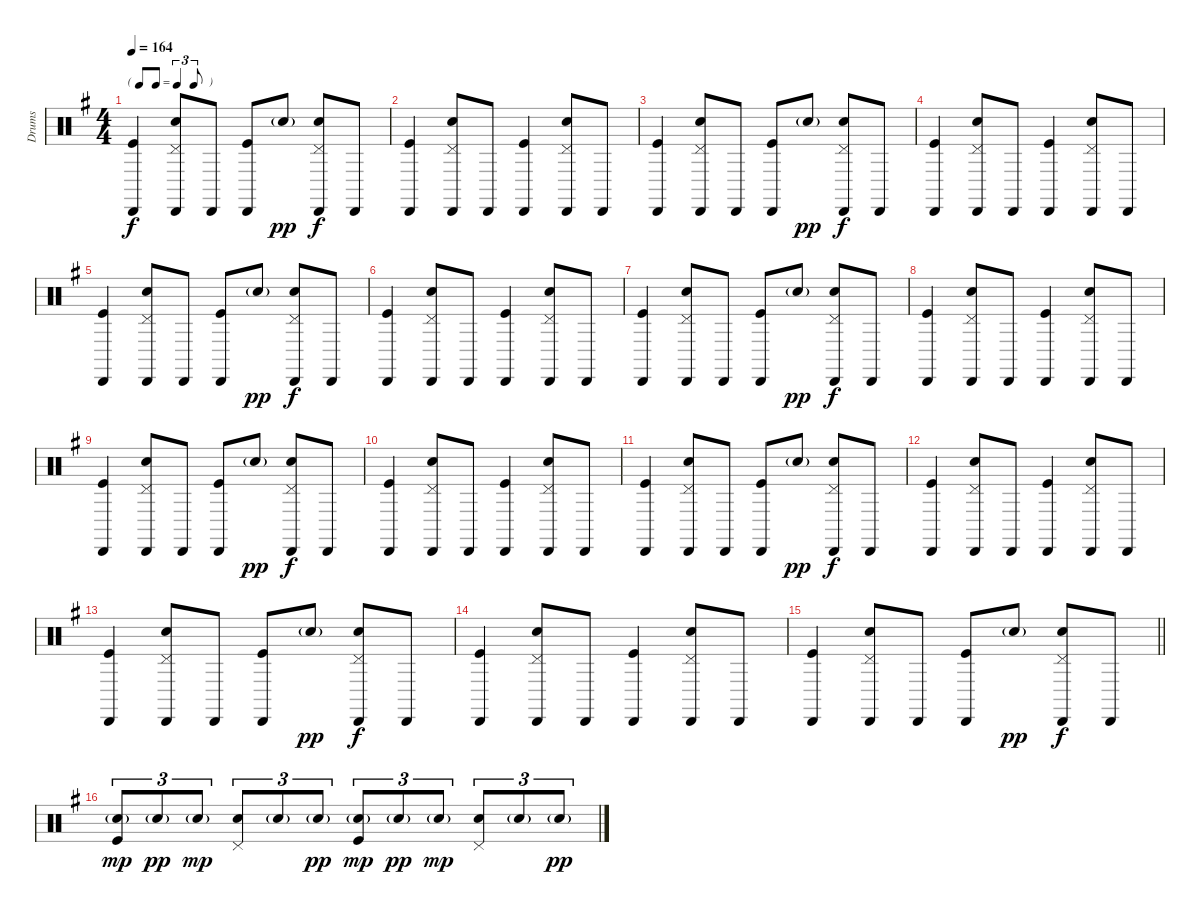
\track ("Drums" "Drums") {instrument percussion}
\staff {score}
\articulation defaults
\ts (4 4)
\tf triplet8th
\tempo 164
\clef neutral
\ks g
("Cabasa (hit)" "Kick (hit)").4{dy f} ("Pedal Hi-Hat (hit)" "Cabasa (hit)" "Snare (hit) 2").8 "Cabasa (hit)".8 ("Cabasa (hit)" "Kick (hit)").8 "Snare (hit) 2"{g}.8{dy pp} ("Pedal Hi-Hat (hit)" "Cabasa (hit)" "Snare (hit) 2").8{dy f} "Cabasa (hit)".8 |
("Cabasa (hit)" "Kick (hit)").4 ("Pedal Hi-Hat (hit)" "Cabasa (hit)" "Snare (hit) 2").8 "Cabasa (hit)".8 ("Cabasa (hit)" "Kick (hit)").4 ("Pedal Hi-Hat (hit)" "Cabasa (hit)" "Snare (hit) 2").8 "Cabasa (hit)".8 |
("Cabasa (hit)" "Kick (hit)").4 ("Pedal Hi-Hat (hit)" "Cabasa (hit)" "Snare (hit) 2").8 "Cabasa (hit)".8 ("Cabasa (hit)" "Kick (hit)").8 "Snare (hit) 2"{g}.8{dy pp} ("Pedal Hi-Hat (hit)" "Cabasa (hit)" "Snare (hit) 2").8{dy f} "Cabasa (hit)".8 |
("Cabasa (hit)" "Kick (hit)").4 ("Pedal Hi-Hat (hit)" "Cabasa (hit)" "Snare (hit) 2").8 "Cabasa (hit)".8 ("Cabasa (hit)" "Kick (hit)").4 ("Pedal Hi-Hat (hit)" "Cabasa (hit)" "Snare (hit) 2").8 "Cabasa (hit)".8 |
("Cabasa (hit)" "Kick (hit)").4 ("Pedal Hi-Hat (hit)" "Cabasa (hit)" "Snare (hit) 2").8 "Cabasa (hit)".8 ("Cabasa (hit)" "Kick (hit)").8 "Snare (hit) 2"{g}.8{dy pp} ("Pedal Hi-Hat (hit)" "Cabasa (hit)" "Snare (hit) 2").8{dy f} "Cabasa (hit)".8 |
("Cabasa (hit)" "Kick (hit)").4 ("Pedal Hi-Hat (hit)" "Cabasa (hit)" "Snare (hit) 2").8 "Cabasa (hit)".8 ("Cabasa (hit)" "Kick (hit)").4 ("Pedal Hi-Hat (hit)" "Cabasa (hit)" "Snare (hit) 2").8 "Cabasa (hit)".8 |
("Cabasa (hit)" "Kick (hit)").4 ("Pedal Hi-Hat (hit)" "Cabasa (hit)" "Snare (hit) 2").8 "Cabasa (hit)".8 ("Cabasa (hit)" "Kick (hit)").8 "Snare (hit) 2"{g}.8{dy pp} ("Pedal Hi-Hat (hit)" "Cabasa (hit)" "Snare (hit) 2").8{dy f} "Cabasa (hit)".8 |
("Cabasa (hit)" "Kick (hit)").4 ("Pedal Hi-Hat (hit)" "Cabasa (hit)" "Snare (hit) 2").8 "Cabasa (hit)".8 ("Cabasa (hit)" "Kick (hit)").4 ("Pedal Hi-Hat (hit)" "Cabasa (hit)" "Snare (hit) 2").8 "Cabasa (hit)".8 |
("Cabasa (hit)" "Kick (hit)").4 ("Pedal Hi-Hat (hit)" "Cabasa (hit)" "Snare (hit) 2").8 "Cabasa (hit)".8 ("Cabasa (hit)" "Kick (hit)").8 "Snare (hit) 2"{g}.8{dy pp} ("Pedal Hi-Hat (hit)" "Cabasa (hit)" "Snare (hit) 2").8{dy f} "Cabasa (hit)".8 |
("Cabasa (hit)" "Kick (hit)").4 ("Pedal Hi-Hat (hit)" "Cabasa (hit)" "Snare (hit) 2").8 "Cabasa (hit)".8 ("Cabasa (hit)" "Kick (hit)").4 ("Pedal Hi-Hat (hit)" "Cabasa (hit)" "Snare (hit) 2").8 "Cabasa (hit)".8 |
("Cabasa (hit)" "Kick (hit)").4 ("Pedal Hi-Hat (hit)" "Cabasa (hit)" "Snare (hit) 2").8 "Cabasa (hit)".8 ("Cabasa (hit)" "Kick (hit)").8 "Snare (hit) 2"{g}.8{dy pp} ("Pedal Hi-Hat (hit)" "Cabasa (hit)" "Snare (hit) 2").8{dy f} "Cabasa (hit)".8 |
("Cabasa (hit)" "Kick (hit)").4 ("Pedal Hi-Hat (hit)" "Cabasa (hit)" "Snare (hit) 2").8 "Cabasa (hit)".8 ("Cabasa (hit)" "Kick (hit)").4 ("Pedal Hi-Hat (hit)" "Cabasa (hit)" "Snare (hit) 2").8 "Cabasa (hit)".8 |
("Cabasa (hit)" "Kick (hit)").4 ("Pedal Hi-Hat (hit)" "Cabasa (hit)" "Snare (hit) 2").8 "Cabasa (hit)".8 ("Cabasa (hit)" "Kick (hit)").8 "Snare (hit) 2"{g}.8{dy pp} ("Pedal Hi-Hat (hit)" "Cabasa (hit)" "Snare (hit) 2").8{dy f} "Cabasa (hit)".8 |
("Cabasa (hit)" "Kick (hit)").4 ("Pedal Hi-Hat (hit)" "Cabasa (hit)" "Snare (hit) 2").8 "Cabasa (hit)".8 ("Cabasa (hit)" "Kick (hit)").4 ("Pedal Hi-Hat (hit)" "Cabasa (hit)" "Snare (hit) 2").8 "Cabasa (hit)".8 |
\barLineRight lightlight
("Cabasa (hit)" "Kick (hit)").4 ("Pedal Hi-Hat (hit)" "Cabasa (hit)" "Snare (hit) 2").8 "Cabasa (hit)".8 ("Cabasa (hit)" "Kick (hit)").8 "Snare (hit) 2"{g}.8{dy pp} ("Pedal Hi-Hat (hit)" "Cabasa (hit)" "Snare (hit) 2").8{dy f} "Cabasa (hit)".8 |
("Snare (hit) 2"{g} "Kick (hit)").8{tu (3 2) dy mp} "Snare (hit) 2"{g}.8{tu (3 2) dy pp} "Snare (hit) 2"{g}.8{tu (3 2) dy mp} ("Pedal Hi-Hat (hit)" "Snare (hit) 2").8{tu (3 2)} "Snare (hit) 2"{g}.8{tu (3 2)} "Snare (hit) 2"{g}.8{tu (3 2) dy pp} ("Snare (hit) 2"{g} "Kick (hit)").8{tu (3 2) dy mp} "Snare (hit) 2"{g}.8{tu (3 2) dy pp} "Snare (hit) 2"{g}.8{tu (3 2) dy mp} ("Pedal Hi-Hat (hit)" "Snare (hit) 2").8{tu (3 2)} "Snare (hit) 2"{g}.8{tu (3 2)} "Snare (hit) 2"{g}.8{tu (3 2) dy pp}
